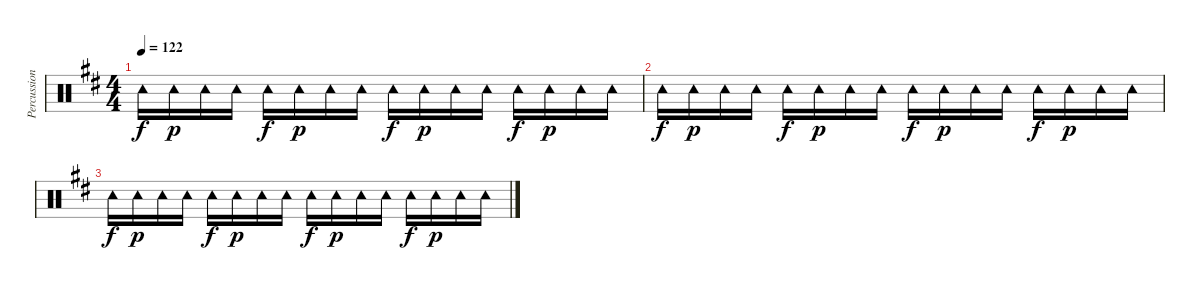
\track ("Percussions" "Percussion") {instrument percussion}
\staff {score}
\articulation defaults
\ts (4 4)
\tempo 122
\clef neutral
\ks d "Tambourine (hit)".16{dy f} "Tambourine (hit)".16{dy p} "Tambourine (hit)".16 "Tambourine (hit)".16 "Tambourine (hit)".16{dy f} "Tambourine (hit)".16{dy p} "Tambourine (hit)".16 "Tambourine (hit)".16 "Tambourine (hit)".16{dy f} "Tambourine (hit)".16{dy p} "Tambourine (hit)".16 "Tambourine (hit)".16 "Tambourine (hit)".16{dy f} "Tambourine (hit)".16{dy p} "Tambourine (hit)".16 "Tambourine (hit)".16
|
"Tambourine (hit)".16{dy f} "Tambourine (hit)".16{dy p} "Tambourine (hit)".16 "Tambourine (hit)".16 "Tambourine (hit)".16{dy f} "Tambourine (hit)".16{dy p} "Tambourine (hit)".16 "Tambourine (hit)".16 "Tambourine (hit)".16{dy f} "Tambourine (hit)".16{dy p} "Tambourine (hit)".16 "Tambourine (hit)".16 "Tambourine (hit)".16{dy f} "Tambourine (hit)".16{dy p} "Tambourine (hit)".16 "Tambourine (hit)".16 |
"Tambourine (hit)".16{dy f} "Tambourine (hit)".16{dy p} "Tambourine (hit)".16 "Tambourine (hit)".16 "Tambourine (hit)".16{dy f} "Tambourine (hit)".16{dy p} "Tambourine (hit)".16 "Tambourine (hit)".16 "Tambourine (hit)".16{dy f} "Tambourine (hit)".16{dy p} "Tambourine (hit)".16 "Tambourine (hit)".16 "Tambourine (hit)".16{dy f} "Tambourine (hit)".16{dy p} "Tambourine (hit)".16 "Tambourine (hit)".16
